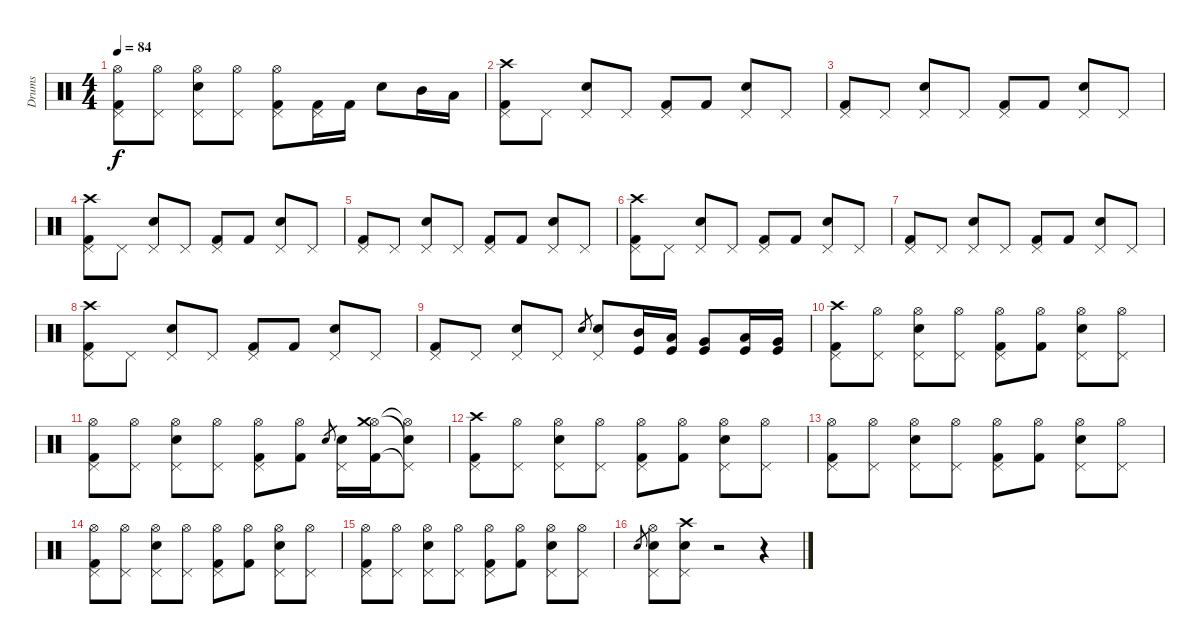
\track ("Drums" "Drums") {instrument percussion}
\staff {score}
\articulation defaults
\ts (4 4)
\tempo 84
\clef neutral
\ks c
("Kick (hit) 2" "Pedal Hi-Hat (hit)" "Hi-Hat (open)").8{dy f} ("Pedal Hi-Hat (hit)" "Hi-Hat (open)").8 ("Snare (hit) 2" "Pedal Hi-Hat (hit)" "Hi-Hat (open)").8 ("Pedal Hi-Hat (hit)" "Hi-Hat (open)").8 ("Kick (hit) 2" "Pedal Hi-Hat (hit)" "Hi-Hat (open)").8 ("Kick (hit) 2" "Pedal Hi-Hat (hit)").16 "Kick (hit) 2".16 "Snare (hit) 2".8 "Mid Tom (hit)".16 "Low Tom (hit)".16 |
("Kick (hit) 2" "Pedal Hi-Hat (hit)" "Crash high (hit)").8 "Pedal Hi-Hat (hit)".8 ("Snare (hit) 2" "Pedal Hi-Hat (hit)").8 "Pedal Hi-Hat (hit)".8 ("Kick (hit) 2" "Pedal Hi-Hat (hit)").8 "Kick (hit) 2".8 ("Snare (hit) 2" "Pedal Hi-Hat (hit)").8 "Pedal Hi-Hat (hit)".8 |
("Kick (hit) 2" "Pedal Hi-Hat (hit)").8 "Pedal Hi-Hat (hit)".8 ("Snare (hit) 2" "Pedal Hi-Hat (hit)").8 "Pedal Hi-Hat (hit)".8 ("Kick (hit) 2" "Pedal Hi-Hat (hit)").8 "Kick (hit) 2".8 ("Snare (hit) 2" "Pedal Hi-Hat (hit)").8 "Pedal Hi-Hat (hit)".8 |
("Kick (hit) 2" "Pedal Hi-Hat (hit)" "Crash high (hit)").8 "Pedal Hi-Hat (hit)".8 ("Snare (hit) 2" "Pedal Hi-Hat (hit)").8 "Pedal Hi-Hat (hit)".8 ("Kick (hit) 2" "Pedal Hi-Hat (hit)").8 "Kick (hit) 2".8 ("Snare (hit) 2" "Pedal Hi-Hat (hit)").8 "Pedal Hi-Hat (hit)".8 |
("Kick (hit) 2" "Pedal Hi-Hat (hit)").8 "Pedal Hi-Hat (hit)".8 ("Snare (hit) 2" "Pedal Hi-Hat (hit)").8 "Pedal Hi-Hat (hit)".8 ("Kick (hit) 2" "Pedal Hi-Hat (hit)").8 "Kick (hit) 2".8 ("Snare (hit) 2" "Pedal Hi-Hat (hit)").8 "Pedal Hi-Hat (hit)".8 |
("Kick (hit) 2" "Pedal Hi-Hat (hit)" "Crash high (hit)").8 "Pedal Hi-Hat (hit)".8 ("Snare (hit) 2" "Pedal Hi-Hat (hit)").8 "Pedal Hi-Hat (hit)".8 ("Kick (hit) 2" "Pedal Hi-Hat (hit)").8 "Kick (hit) 2".8 ("Snare (hit) 2" "Pedal Hi-Hat (hit)").8 "Pedal Hi-Hat (hit)".8 |
("Kick (hit) 2" "Pedal Hi-Hat (hit)").8 "Pedal Hi-Hat (hit)".8 ("Snare (hit) 2" "Pedal Hi-Hat (hit)").8 "Pedal Hi-Hat (hit)".8 ("Kick (hit) 2" "Pedal Hi-Hat (hit)").8 "Kick (hit) 2".8 ("Snare (hit) 2" "Pedal Hi-Hat (hit)").8 "Pedal Hi-Hat (hit)".8 |
("Kick (hit) 2" "Pedal Hi-Hat (hit)" "Crash high (hit)").8 "Pedal Hi-Hat (hit)".8 ("Snare (hit) 2" "Pedal Hi-Hat (hit)").8 "Pedal Hi-Hat (hit)".8 ("Kick (hit) 2" "Pedal Hi-Hat (hit)").8 "Kick (hit) 2".8 ("Snare (hit) 2" "Pedal Hi-Hat (hit)").8 "Pedal Hi-Hat (hit)".8 |
("Kick (hit) 2" "Pedal Hi-Hat (hit)").8 "Pedal Hi-Hat (hit)".8 ("Snare (hit) 2" "Pedal Hi-Hat (hit)").8 "Pedal Hi-Hat (hit)".8 "Snare (hit) 2".8{gr} ("Snare (hit) 2" "Pedal Hi-Hat (hit)").8 ("Mid Tom (hit)" "Kick (hit)").16 ("Low Tom (hit)" "Kick (hit)").16 ("Very Low Tom (hit)" "Kick (hit)").8 ("Low Floor Tom (hit)" "Kick (hit)").16 ("Very Low Tom (hit)" "Kick (hit)").16 |
("Kick (hit) 2" "Pedal Hi-Hat (hit)" "Crash high (hit)").8 ("Pedal Hi-Hat (hit)" "Hi-Hat (open)").8 ("Snare (hit) 2" "Pedal Hi-Hat (hit)" "Hi-Hat (open)").8 ("Pedal Hi-Hat (hit)" "Hi-Hat (open)").8 ("Kick (hit) 2" "Pedal Hi-Hat (hit)" "Hi-Hat (open)").8 ("Kick (hit) 2" "Hi-Hat (open)").8 ("Snare (hit) 2" "Pedal Hi-Hat (hit)" "Hi-Hat (open)").8 ("Pedal Hi-Hat (hit)" "Hi-Hat (open)").8 |
("Kick (hit) 2" "Pedal Hi-Hat (hit)" "Hi-Hat (open)").8 ("Pedal Hi-Hat (hit)" "Hi-Hat (open)").8 ("Snare (hit) 2" "Pedal Hi-Hat (hit)" "Hi-Hat (open)").8 ("Pedal Hi-Hat (hit)" "Hi-Hat (open)").8 ("Kick (hit) 2" "Pedal Hi-Hat (hit)" "Hi-Hat (open)").8 ("Kick (hit) 2" "Hi-Hat (open)").8 "Snare (hit) 2".8{gr} ("Snare (hit) 2" "Pedal Hi-Hat (hit)").16 ("Kick (hit) 2" "Hi-Hat (open)" "Crash medium (hit)").16 ("Pedal Hi-Hat (hit)"{t} "Hi-Hat (open)"{t} "Snare (hit)"{t}).8 |
("Kick (hit) 2" "Pedal Hi-Hat (hit)" "Crash high (hit)").8 ("Pedal Hi-Hat (hit)" "Hi-Hat (open)").8 ("Snare (hit) 2" "Pedal Hi-Hat (hit)" "Hi-Hat (open)").8 ("Pedal Hi-Hat (hit)" "Hi-Hat (open)").8 ("Kick (hit) 2" "Pedal Hi-Hat (hit)" "Hi-Hat (open)").8 ("Kick (hit) 2" "Hi-Hat (open)").8 ("Snare (hit) 2" "Pedal Hi-Hat (hit)" "Hi-Hat (open)").8 ("Pedal Hi-Hat (hit)" "Hi-Hat (open)").8 |
("Kick (hit) 2" "Pedal Hi-Hat (hit)" "Hi-Hat (open)").8 ("Pedal Hi-Hat (hit)" "Hi-Hat (open)").8 ("Snare (hit) 2" "Pedal Hi-Hat (hit)" "Hi-Hat (open)").8 ("Pedal Hi-Hat (hit)" "Hi-Hat (open)").8 ("Kick (hit) 2" "Pedal Hi-Hat (hit)" "Hi-Hat (open)").8 ("Kick (hit) 2" "Hi-Hat (open)").8 ("Snare (hit) 2" "Pedal Hi-Hat (hit)" "Hi-Hat (open)").8 ("Pedal Hi-Hat (hit)" "Hi-Hat (open)").8 |
("Kick (hit) 2" "Pedal Hi-Hat (hit)" "Hi-Hat (open)").8 ("Pedal Hi-Hat (hit)" "Hi-Hat (open)").8 ("Snare (hit) 2" "Pedal Hi-Hat (hit)" "Hi-Hat (open)").8 ("Pedal Hi-Hat (hit)" "Hi-Hat (open)").8 ("Kick (hit) 2" "Pedal Hi-Hat (hit)" "Hi-Hat (open)").8 ("Kick (hit) 2" "Hi-Hat (open)").8 ("Snare (hit) 2" "Pedal Hi-Hat (hit)" "Hi-Hat (open)").8 ("Pedal Hi-Hat (hit)" "Hi-Hat (open)").8 |
("Kick (hit) 2" "Pedal Hi-Hat (hit)" "Hi-Hat (open)").8 ("Pedal Hi-Hat (hit)" "Hi-Hat (open)").8 ("Snare (hit) 2" "Pedal Hi-Hat (hit)" "Hi-Hat (open)").8 ("Pedal Hi-Hat (hit)" "Hi-Hat (open)").8 ("Kick (hit) 2" "Pedal Hi-Hat (hit)" "Hi-Hat (open)").8 ("Kick (hit) 2" "Hi-Hat (open)").8 ("Snare (hit) 2" "Pedal Hi-Hat (hit)" "Hi-Hat (open)").8 ("Pedal Hi-Hat (hit)" "Hi-Hat (open)").8 |
"Snare (hit) 2".8{gr} ("Snare (hit) 2" "Pedal Hi-Hat (hit)" "Hi-Hat (open)").8 ("Snare (hit) 2" "Pedal Hi-Hat (hit)" "Crash high (hit)").8 r.2 r.4
